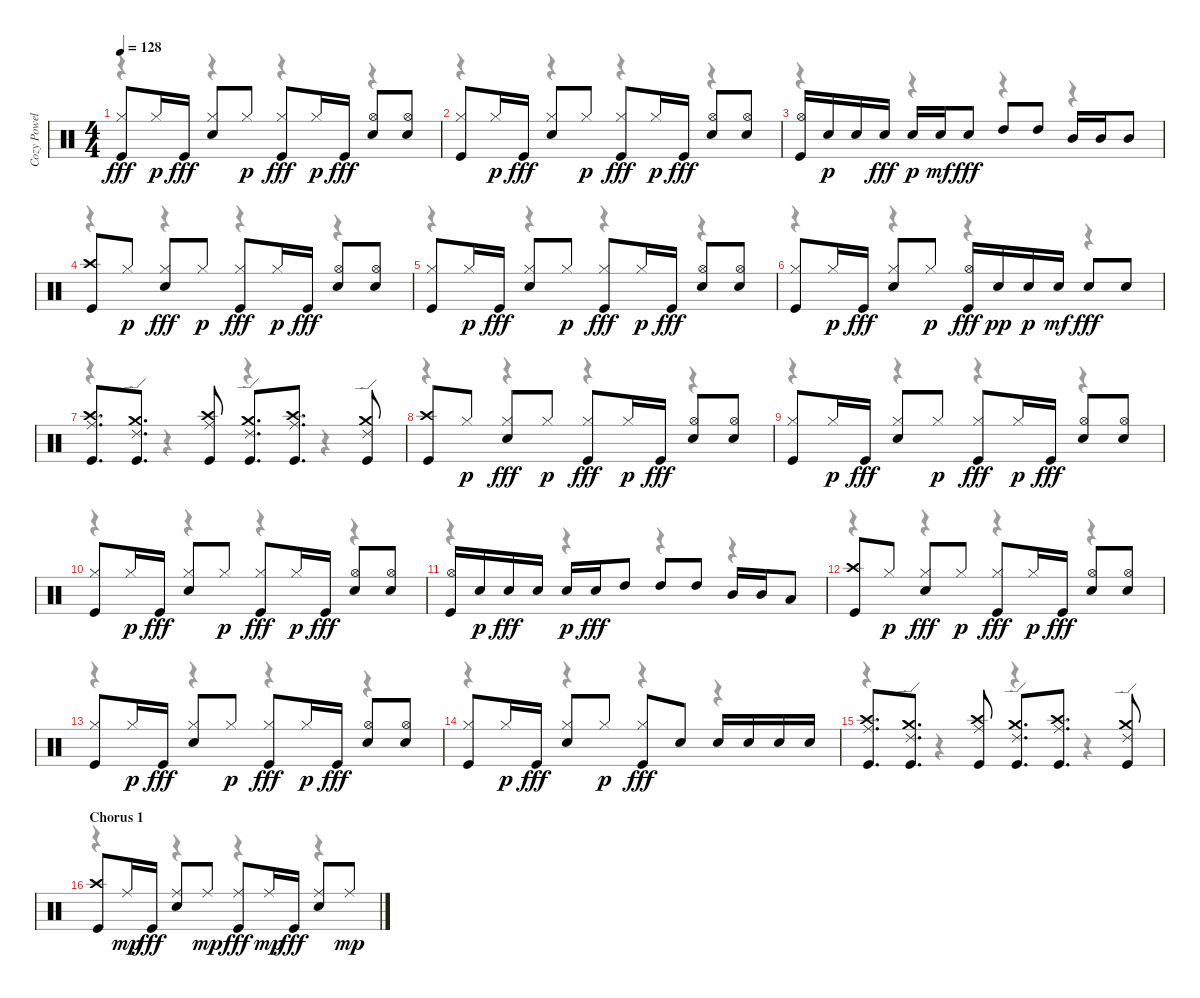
\track ("Cozy Powell - Drums" "Cozy Powel") {instrument percussion}
\staff {score}
\articulation defaults
\voice
\ts (4 4)
\tempo 128
\clef neutral
\ks c
("Kick (hit)" "Hi-Hat (closed)").8{dy fff} "Hi-Hat (closed)".16{dy p} "Kick (hit)".16{dy fff} ("Snare (hit) 2" "Hi-Hat (closed)").8 "Hi-Hat (closed)".8{dy p} ("Kick (hit)" "Hi-Hat (closed)").8{dy fff} "Hi-Hat (closed)".16{dy p} "Kick (hit)".16{dy fff} ("Snare (hit) 2" "Hi-Hat (open)").8 ("Snare (hit) 2" "Hi-Hat (open)").8 |
("Kick (hit)" "Hi-Hat (closed)").8 "Hi-Hat (closed)".16{dy p} "Kick (hit)".16{dy fff} ("Snare (hit) 2" "Hi-Hat (closed)").8 "Hi-Hat (closed)".8{dy p} ("Kick (hit)" "Hi-Hat (closed)").8{dy fff} "Hi-Hat (closed)".16{dy p} "Kick (hit)".16{dy fff} ("Snare (hit) 2" "Hi-Hat (open)").8 ("Snare (hit) 2" "Hi-Hat (open)").8 |
("Kick (hit)" "Hi-Hat (open)").16 "Snare (hit) 2".16{dy p} "Snare (hit) 2".16 "Snare (hit) 2".16{dy fff} "Snare (hit) 2".16{dy p} "Snare (hit) 2".16{dy mf} "Snare (hit) 2".8{dy fff} "High Tom (hit)".8 "High Tom (hit)".8 "Mid Tom (hit)".16 "Mid Tom (hit)".16 "Mid Tom (hit)".8 |
("Kick (hit)" "Crash high (hit)").8 "Hi-Hat (closed)".8{dy p} ("Snare (hit) 2" "Hi-Hat (closed)").8{dy fff} "Hi-Hat (closed)".8{dy p} ("Kick (hit)" "Hi-Hat (closed)").8{dy fff} "Hi-Hat (closed)".16{dy p} "Kick (hit)".16{dy fff} ("Snare (hit) 2" "Hi-Hat (open)").8 ("Snare (hit) 2" "Hi-Hat (open)").8 |
("Kick (hit)" "Hi-Hat (closed)").8 "Hi-Hat (closed)".16{dy p} "Kick (hit)".16{dy fff} ("Snare (hit) 2" "Hi-Hat (closed)").8 "Hi-Hat (closed)".8{dy p} ("Kick (hit)" "Hi-Hat (closed)").8{dy fff} "Hi-Hat (closed)".16{dy p} "Kick (hit)".16{dy fff} ("Snare (hit) 2" "Hi-Hat (open)").8 ("Snare (hit) 2" "Hi-Hat (open)").8 |
("Kick (hit)" "Hi-Hat (closed)").8 "Hi-Hat (closed)".16{dy p} "Kick (hit)".16{dy fff} ("Snare (hit) 2" "Hi-Hat (closed)").8 "Hi-Hat (closed)".8{dy p} ("Kick (hit)" "Hi-Hat (open)").16{dy fff} "Snare (hit) 2".16{dy pp} "Snare (hit) 2".16{dy p} "Snare (hit) 2".16{dy mf} "Snare (hit) 2".8{dy fff} "Snare (hit) 2".8 |
("Kick (hit)" "Ride (middle)" "Crash high (hit)").8{d} ("Kick (hit)" "Ride (edge) 2" "Crash medium (hit)").8{d} ("Kick (hit)" "Ride (middle)" "Crash high (hit)").8 ("Kick (hit)" "Ride (edge) 2" "Crash medium (hit)").8{d} ("Kick (hit)" "Ride (middle)" "Crash high (hit)").8{d} ("Kick (hit)" "Ride (edge) 2" "Crash medium (hit)").8 |
("Kick (hit)" "Crash high (hit)").8 "Hi-Hat (closed)".8{dy p} ("Snare (hit) 2" "Hi-Hat (closed)").8{dy fff} "Hi-Hat (closed)".8{dy p} ("Kick (hit)" "Hi-Hat (closed)").8{dy fff} "Hi-Hat (closed)".16{dy p} "Kick (hit)".16{dy fff} ("Snare (hit) 2" "Hi-Hat (open)").8 ("Snare (hit) 2" "Hi-Hat (open)").8 |
("Kick (hit)" "Hi-Hat (closed)").8 "Hi-Hat (closed)".16{dy p} "Kick (hit)".16{dy fff} ("Snare (hit) 2" "Hi-Hat (closed)").8 "Hi-Hat (closed)".8{dy p} ("Kick (hit)" "Hi-Hat (closed)").8{dy fff} "Hi-Hat (closed)".16{dy p} "Kick (hit)".16{dy fff} ("Snare (hit) 2" "Hi-Hat (open)").8 ("Snare (hit) 2" "Hi-Hat (open)").8 |
("Kick (hit)" "Hi-Hat (closed)").8 "Hi-Hat (closed)".16{dy p} "Kick (hit)".16{dy fff} ("Snare (hit) 2" "Hi-Hat (closed)").8 "Hi-Hat (closed)".8{dy p} ("Kick (hit)" "Hi-Hat (closed)").8{dy fff} "Hi-Hat (closed)".16{dy p} "Kick (hit)".16{dy fff} ("Snare (hit) 2" "Hi-Hat (open)").8 ("Snare (hit) 2" "Hi-Hat (open)").8 |
("Kick (hit)" "Hi-Hat (open)").16 "Snare (hit) 2".16{dy p} "Snare (hit) 2".16{dy fff} "Snare (hit) 2".16 "Snare (hit) 2".16{dy p} "Snare (hit) 2".16{dy fff} "High Tom (hit)".8 "High Tom (hit)".8 "High Tom (hit)".8 "Mid Tom (hit)".16 "Mid Tom (hit)".16 "Low Tom (hit)".8 |
("Kick (hit)" "Crash high (hit)").8 "Hi-Hat (closed)".8{dy p} ("Snare (hit) 2" "Hi-Hat (closed)").8{dy fff} "Hi-Hat (closed)".8{dy p} ("Kick (hit)" "Hi-Hat (closed)").8{dy fff} "Hi-Hat (closed)".16{dy p} "Kick (hit)".16{dy fff} ("Snare (hit) 2" "Hi-Hat (open)").8 ("Snare (hit) 2" "Hi-Hat (open)").8 |
("Kick (hit)" "Hi-Hat (closed)").8 "Hi-Hat (closed)".16{dy p} "Kick (hit)".16{dy fff} ("Snare (hit) 2" "Hi-Hat (closed)").8 "Hi-Hat (closed)".8{dy p} ("Kick (hit)" "Hi-Hat (closed)").8{dy fff} "Hi-Hat (closed)".16{dy p} "Kick (hit)".16{dy fff} ("Snare (hit) 2" "Hi-Hat (open)").8 ("Snare (hit) 2" "Hi-Hat (open)").8 |
("Kick (hit)" "Hi-Hat (closed)").8 "Hi-Hat (closed)".16{dy p} "Kick (hit)".16{dy fff} ("Snare (hit) 2" "Hi-Hat (closed)").8 "Hi-Hat (closed)".8{dy p} ("Kick (hit)" "Hi-Hat (closed)").8{dy fff} "Snare (hit) 2".8 "Snare (hit) 2".16 "Snare (hit) 2".16 "Snare (hit) 2".16 "Snare (hit) 2".16 |
("Kick (hit)" "Ride (middle)" "Crash high (hit)").8{d} ("Kick (hit)" "Ride (edge) 2" "Crash medium (hit)").8{d} ("Kick (hit)" "Ride (middle)" "Crash high (hit)").8 ("Kick (hit)" "Ride (edge) 2" "Crash medium (hit)").8{d} ("Kick (hit)" "Ride (middle)" "Crash high (hit)").8{d} ("Kick (hit)" "Ride (edge) 2" "Crash medium (hit)").8 |
\section ("" "Chorus 1")
("Kick (hit)" "Crash high (hit)").8 "Ride (middle)".16{dy mp} "Kick (hit)".16{dy fff} ("Snare (hit) 2" "Ride (middle)").8 "Ride (middle)".8{dy mp} ("Kick (hit)" "Ride (middle)").8{dy fff} "Ride (middle)".16{dy mp} "Kick (hit)".16{dy fff} ("Snare (hit) 2" "Ride (middle)").8 "Ride (middle)".8{dy mp}
\voice
\clef neutral
\ottava regular
\simile none
\ks c
r.4{dy f} r.4 r.4 r.4 |
r.4 r.4 r.4 r.4 |
r.4 r.4 r.4 r.4 |
r.4 r.4 r.4 r.4 |
r.4 r.4 r.4 r.4 |
r.4 r.4 r.4 r.4 |
r.4 r.4 r.4 r.4 |
r.4 r.4 r.4 r.4 |
r.4 r.4 r.4 r.4 |
r.4 r.4 r.4 r.4 |
r.4 r.4 r.4 r.4 |
r.4 r.4 r.4 r.4 |
r.4 r.4 r.4 r.4 |
r.4 r.4 r.4 r.4 |
r.4 r.4 r.4 r.4 |
r.4 r.4 r.4 r.4
